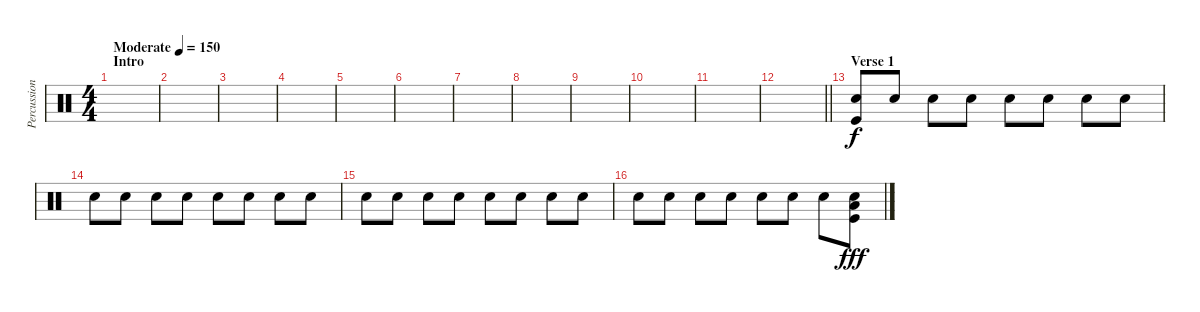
\track ("Percussion" "Percussion") {instrument percussion}
\staff {score}
\articulation defaults
\ts (4 4)
\section ("" "Intro")
\tempo (150 "Moderate")
\clef neutral
\ks c
|
|
|
|
|
|
|
|
|
|
|
\barLineRight lightlight
|
\section ("" "Verse 1")
("Snare (hit) 2" "Kick (hit)").8 "Snare (hit) 2".8{dy f} "Snare (hit) 2".8 "Snare (hit) 2".8 "Snare (hit) 2".8 "Snare (hit) 2".8 "Snare (hit) 2".8 "Snare (hit) 2".8 |
"Snare (hit) 2".8 "Snare (hit) 2".8 "Snare (hit) 2".8 "Snare (hit) 2".8 "Snare (hit) 2".8 "Snare (hit) 2".8 "Snare (hit) 2".8 "Snare (hit) 2".8 |
"Snare (hit) 2".8 "Snare (hit) 2".8 "Snare (hit) 2".8 "Snare (hit) 2".8 "Snare (hit) 2".8 "Snare (hit) 2".8 "Snare (hit) 2".8 "Snare (hit) 2".8 |
"Snare (hit) 2".8 "Snare (hit) 2".8 "Snare (hit) 2".8 "Snare (hit) 2".8 "Snare (hit) 2".8 "Snare (hit) 2".8 "Snare (hit) 2".8 ("Low Floor Tom (hit)" "Snare (hit) 2" "Kick (hit)").8{dy fff}
